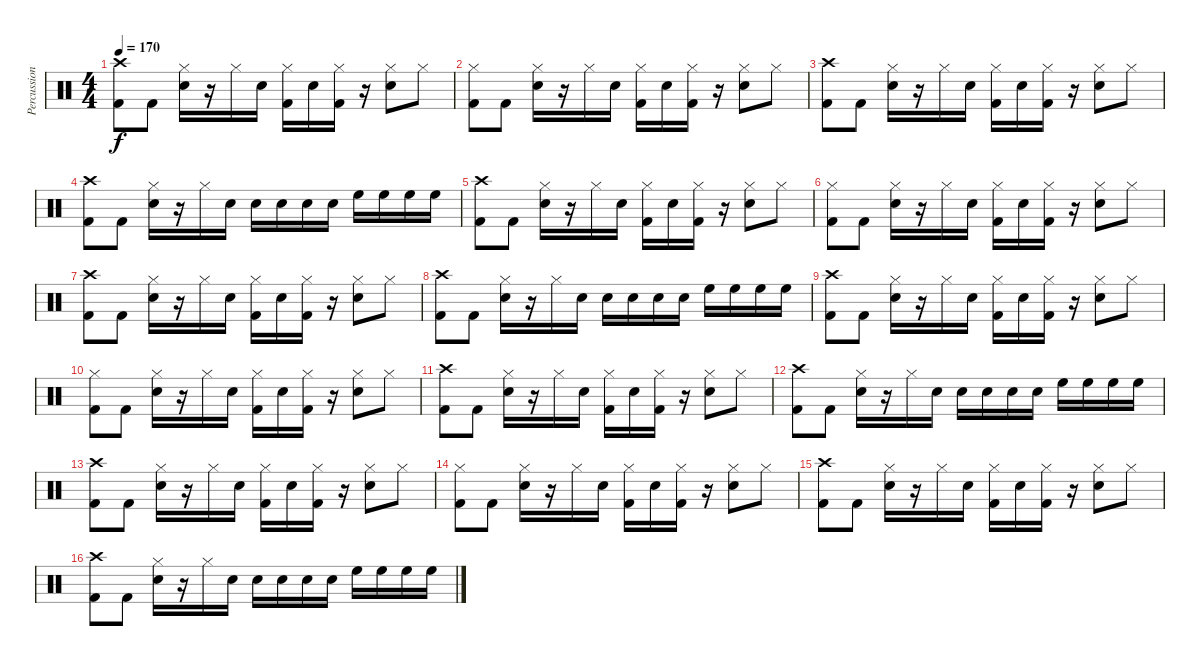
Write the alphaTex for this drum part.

\track ("Percussions" "Percussion") {instrument percussion}
\staff {score}
\articulation defaults
\ts (4 4)
\tempo 170
\clef neutral
\ks c
("Kick (hit) 2" "Crash high (hit)").8{dy f} "Kick (hit) 2".8 ("Hi-Hat (closed)" "Snare (hit) 2").16 r.16 "Hi-Hat (closed)".16 "Snare (hit) 2".16 ("Hi-Hat (closed)" "Kick (hit) 2").16 "Snare (hit) 2".16 ("Hi-Hat (closed)" "Kick (hit) 2").16 r.16 ("Snare (hit) 2" "Hi-Hat (closed)").8 "Hi-Hat (closed)".8 |
("Kick (hit) 2" "Hi-Hat (closed)").8 "Kick (hit) 2".8 ("Hi-Hat (closed)" "Snare (hit) 2").16 r.16 "Hi-Hat (closed)".16 "Snare (hit) 2".16 ("Hi-Hat (closed)" "Kick (hit) 2").16 "Snare (hit) 2".16 ("Hi-Hat (closed)" "Kick (hit) 2").16 r.16 ("Snare (hit) 2" "Hi-Hat (closed)").8 "Hi-Hat (closed)".8 |
("Kick (hit) 2" "Crash high (hit)").8 "Kick (hit) 2".8 ("Hi-Hat (closed)" "Snare (hit) 2").16 r.16 "Hi-Hat (closed)".16 "Snare (hit) 2".16 ("Hi-Hat (closed)" "Kick (hit) 2").16 "Snare (hit) 2".16 ("Hi-Hat (closed)" "Kick (hit) 2").16 r.16 ("Snare (hit) 2" "Hi-Hat (closed)").8 "Hi-Hat (closed)".8 |
("Kick (hit) 2" "Crash high (hit)").8 "Kick (hit) 2".8 ("Hi-Hat (closed)" "Snare (hit) 2").16 r.16 "Hi-Hat (closed)".16 "Snare (hit) 2".16 "Snare (hit) 2".16 "Snare (hit) 2".16 "Snare (hit) 2".16 "Snare (hit) 2".16 "High Floor Tom (hit)".16 "High Floor Tom (hit)".16 "High Floor Tom (hit)".16 "High Floor Tom (hit)".16 |
("Kick (hit) 2" "Crash high (hit)").8 "Kick (hit) 2".8 ("Hi-Hat (closed)" "Snare (hit) 2").16 r.16 "Hi-Hat (closed)".16 "Snare (hit) 2".16 ("Hi-Hat (closed)" "Kick (hit) 2").16 "Snare (hit) 2".16 ("Hi-Hat (closed)" "Kick (hit) 2").16 r.16 ("Snare (hit) 2" "Hi-Hat (closed)").8 "Hi-Hat (closed)".8 |
("Kick (hit) 2" "Hi-Hat (closed)").8 "Kick (hit) 2".8 ("Hi-Hat (closed)" "Snare (hit) 2").16 r.16 "Hi-Hat (closed)".16 "Snare (hit) 2".16 ("Hi-Hat (closed)" "Kick (hit) 2").16 "Snare (hit) 2".16 ("Hi-Hat (closed)" "Kick (hit) 2").16 r.16 ("Snare (hit) 2" "Hi-Hat (closed)").8 "Hi-Hat (closed)".8 |
("Kick (hit) 2" "Crash high (hit)").8 "Kick (hit) 2".8 ("Hi-Hat (closed)" "Snare (hit) 2").16 r.16 "Hi-Hat (closed)".16 "Snare (hit) 2".16 ("Hi-Hat (closed)" "Kick (hit) 2").16 "Snare (hit) 2".16 ("Hi-Hat (closed)" "Kick (hit) 2").16 r.16 ("Snare (hit) 2" "Hi-Hat (closed)").8 "Hi-Hat (closed)".8 |
("Kick (hit) 2" "Crash high (hit)").8 "Kick (hit) 2".8 ("Hi-Hat (closed)" "Snare (hit) 2").16 r.16 "Hi-Hat (closed)".16 "Snare (hit) 2".16 "Snare (hit) 2".16 "Snare (hit) 2".16 "Snare (hit) 2".16 "Snare (hit) 2".16 "High Floor Tom (hit)".16 "High Floor Tom (hit)".16 "High Floor Tom (hit)".16 "High Floor Tom (hit)".16 |
("Kick (hit) 2" "Crash high (hit)").8 "Kick (hit) 2".8 ("Hi-Hat (closed)" "Snare (hit) 2").16 r.16 "Hi-Hat (closed)".16 "Snare (hit) 2".16 ("Hi-Hat (closed)" "Kick (hit) 2").16 "Snare (hit) 2".16 ("Hi-Hat (closed)" "Kick (hit) 2").16 r.16 ("Snare (hit) 2" "Hi-Hat (closed)").8 "Hi-Hat (closed)".8 |
("Kick (hit) 2" "Hi-Hat (closed)").8 "Kick (hit) 2".8 ("Hi-Hat (closed)" "Snare (hit) 2").16 r.16 "Hi-Hat (closed)".16 "Snare (hit) 2".16 ("Hi-Hat (closed)" "Kick (hit) 2").16 "Snare (hit) 2".16 ("Hi-Hat (closed)" "Kick (hit) 2").16 r.16 ("Snare (hit) 2" "Hi-Hat (closed)").8 "Hi-Hat (closed)".8 |
("Kick (hit) 2" "Crash high (hit)").8 "Kick (hit) 2".8 ("Hi-Hat (closed)" "Snare (hit) 2").16 r.16 "Hi-Hat (closed)".16 "Snare (hit) 2".16 ("Hi-Hat (closed)" "Kick (hit) 2").16 "Snare (hit) 2".16 ("Hi-Hat (closed)" "Kick (hit) 2").16 r.16 ("Snare (hit) 2" "Hi-Hat (closed)").8 "Hi-Hat (closed)".8 |
("Kick (hit) 2" "Crash high (hit)").8 "Kick (hit) 2".8 ("Hi-Hat (closed)" "Snare (hit) 2").16 r.16 "Hi-Hat (closed)".16 "Snare (hit) 2".16 "Snare (hit) 2".16 "Snare (hit) 2".16 "Snare (hit) 2".16 "Snare (hit) 2".16 "High Floor Tom (hit)".16 "High Floor Tom (hit)".16 "High Floor Tom (hit)".16 "High Floor Tom (hit)".16 |
("Kick (hit) 2" "Crash high (hit)").8 "Kick (hit) 2".8 ("Hi-Hat (closed)" "Snare (hit) 2").16 r.16 "Hi-Hat (closed)".16 "Snare (hit) 2".16 ("Hi-Hat (closed)" "Kick (hit) 2").16 "Snare (hit) 2".16 ("Hi-Hat (closed)" "Kick (hit) 2").16 r.16 ("Snare (hit) 2" "Hi-Hat (closed)").8 "Hi-Hat (closed)".8 |
("Kick (hit) 2" "Hi-Hat (closed)").8 "Kick (hit) 2".8 ("Hi-Hat (closed)" "Snare (hit) 2").16 r.16 "Hi-Hat (closed)".16 "Snare (hit) 2".16 ("Hi-Hat (closed)" "Kick (hit) 2").16 "Snare (hit) 2".16 ("Hi-Hat (closed)" "Kick (hit) 2").16 r.16 ("Snare (hit) 2" "Hi-Hat (closed)").8 "Hi-Hat (closed)".8 |
("Kick (hit) 2" "Crash high (hit)").8 "Kick (hit) 2".8 ("Hi-Hat (closed)" "Snare (hit) 2").16 r.16 "Hi-Hat (closed)".16 "Snare (hit) 2".16 ("Hi-Hat (closed)" "Kick (hit) 2").16 "Snare (hit) 2".16 ("Hi-Hat (closed)" "Kick (hit) 2").16 r.16 ("Snare (hit) 2" "Hi-Hat (closed)").8 "Hi-Hat (closed)".8 |
("Kick (hit) 2" "Crash high (hit)").8 "Kick (hit) 2".8 ("Hi-Hat (closed)" "Snare (hit) 2").16 r.16 "Hi-Hat (closed)".16 "Snare (hit) 2".16 "Snare (hit) 2".16 "Snare (hit) 2".16 "Snare (hit) 2".16 "Snare (hit) 2".16 "High Floor Tom (hit)".16 "High Floor Tom (hit)".16 "High Floor Tom (hit)".16 "High Floor Tom (hit)".16
